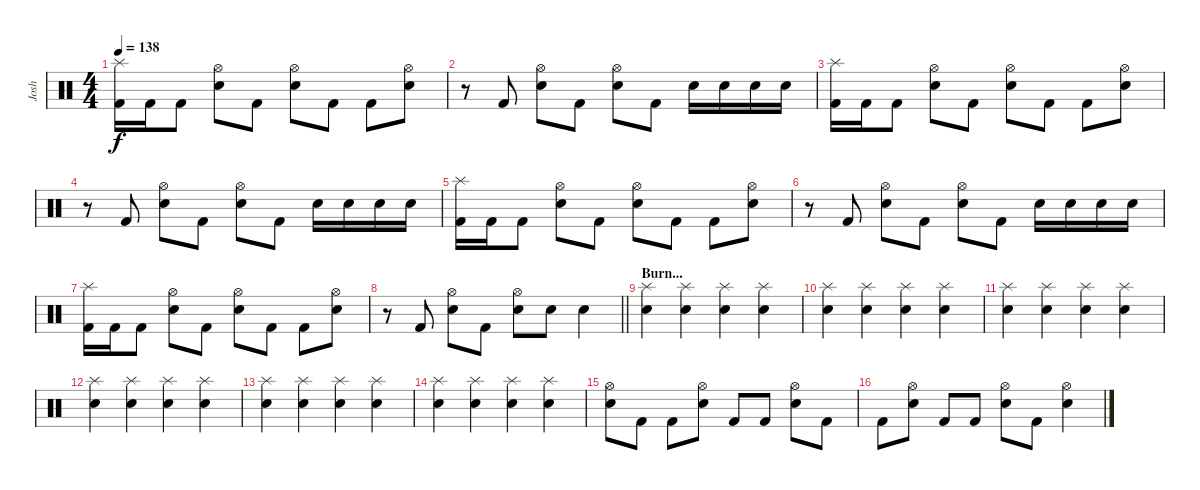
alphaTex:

\track ("Josh" "Josh") {instrument percussion}
\staff {score}
\articulation defaults
\ts (4 4)
\tempo 138
\clef neutral
\ks c
("Splash (hit)" "Kick (hit) 2").16{dy f} "Kick (hit) 2".16 "Kick (hit) 2".8 ("Hi-Hat (open)" "Electric Snare (hit)").8 "Kick (hit) 2".8 ("Hi-Hat (open)" "Electric Snare (hit)").8 "Kick (hit) 2".8 "Kick (hit) 2".8 ("Hi-Hat (open)" "Electric Snare (hit)").8 |
r.8 "Kick (hit) 2".8 ("Hi-Hat (open)" "Electric Snare (hit)").8 "Kick (hit) 2".8 ("Hi-Hat (open)" "Electric Snare (hit)").8 "Kick (hit) 2".8 "Electric Snare (hit)".16 "Electric Snare (hit)".16 "Electric Snare (hit)".16 "Electric Snare (hit)".16 |
("Splash (hit)" "Kick (hit) 2").16 "Kick (hit) 2".16 "Kick (hit) 2".8 ("Hi-Hat (open)" "Electric Snare (hit)").8 "Kick (hit) 2".8 ("Hi-Hat (open)" "Electric Snare (hit)").8 "Kick (hit) 2".8 "Kick (hit) 2".8 ("Hi-Hat (open)" "Electric Snare (hit)").8 |
r.8 "Kick (hit) 2".8 ("Hi-Hat (open)" "Electric Snare (hit)").8 "Kick (hit) 2".8 ("Hi-Hat (open)" "Electric Snare (hit)").8 "Kick (hit) 2".8 "Electric Snare (hit)".16 "Electric Snare (hit)".16 "Electric Snare (hit)".16 "Electric Snare (hit)".16 |
("Splash (hit)" "Kick (hit) 2").16 "Kick (hit) 2".16 "Kick (hit) 2".8 ("Hi-Hat (open)" "Electric Snare (hit)").8 "Kick (hit) 2".8 ("Hi-Hat (open)" "Electric Snare (hit)").8 "Kick (hit) 2".8 "Kick (hit) 2".8 ("Hi-Hat (open)" "Electric Snare (hit)").8 |
r.8 "Kick (hit) 2".8 ("Hi-Hat (open)" "Electric Snare (hit)").8 "Kick (hit) 2".8 ("Hi-Hat (open)" "Electric Snare (hit)").8 "Kick (hit) 2".8 "Electric Snare (hit)".16 "Electric Snare (hit)".16 "Electric Snare (hit)".16 "Electric Snare (hit)".16 |
("Splash (hit)" "Kick (hit) 2").16 "Kick (hit) 2".16 "Kick (hit) 2".8 ("Hi-Hat (open)" "Electric Snare (hit)").8 "Kick (hit) 2".8 ("Hi-Hat (open)" "Electric Snare (hit)").8 "Kick (hit) 2".8 "Kick (hit) 2".8 ("Hi-Hat (open)" "Electric Snare (hit)").8 |
\barLineRight lightlight
r.8 "Kick (hit) 2".8 ("Hi-Hat (open)" "Electric Snare (hit)").8 "Kick (hit) 2".8 ("Hi-Hat (open)" "Electric Snare (hit)").8 "Electric Snare (hit)".8 "Electric Snare (hit)".4 |
\section ("" "Burn...")
("Splash (hit)" "Electric Snare (hit)").4 ("Splash (hit)" "Electric Snare (hit)").4 ("Splash (hit)" "Electric Snare (hit)").4 ("Splash (hit)" "Electric Snare (hit)").4 |
("Splash (hit)" "Electric Snare (hit)").4 ("Splash (hit)" "Electric Snare (hit)").4 ("Splash (hit)" "Electric Snare (hit)").4 ("Splash (hit)" "Electric Snare (hit)").4 |
("Splash (hit)" "Electric Snare (hit)").4 ("Splash (hit)" "Electric Snare (hit)").4 ("Splash (hit)" "Electric Snare (hit)").4 ("Splash (hit)" "Electric Snare (hit)").4 |
("Splash (hit)" "Electric Snare (hit)").4 ("Splash (hit)" "Electric Snare (hit)").4 ("Splash (hit)" "Electric Snare (hit)").4 ("Splash (hit)" "Electric Snare (hit)").4 |
("Splash (hit)" "Electric Snare (hit)").4 ("Splash (hit)" "Electric Snare (hit)").4 ("Splash (hit)" "Electric Snare (hit)").4 ("Splash (hit)" "Electric Snare (hit)").4 |
("Splash (hit)" "Electric Snare (hit)").4 ("Splash (hit)" "Electric Snare (hit)").4 ("Splash (hit)" "Electric Snare (hit)").4 ("Splash (hit)" "Electric Snare (hit)").4 |
("Hi-Hat (open)" "Electric Snare (hit)").8 "Kick (hit) 2".8 "Kick (hit) 2".8 ("Hi-Hat (open)" "Electric Snare (hit)").8 "Kick (hit) 2".8 "Kick (hit) 2".8 ("Hi-Hat (open)" "Electric Snare (hit)").8 "Kick (hit) 2".8 |
"Kick (hit) 2".8 ("Hi-Hat (open)" "Electric Snare (hit)").8 "Kick (hit) 2".8 "Kick (hit) 2".8 ("Hi-Hat (open)" "Electric Snare (hit)").8 "Kick (hit) 2".8 ("Hi-Hat (open)" "Electric Snare (hit)").4
